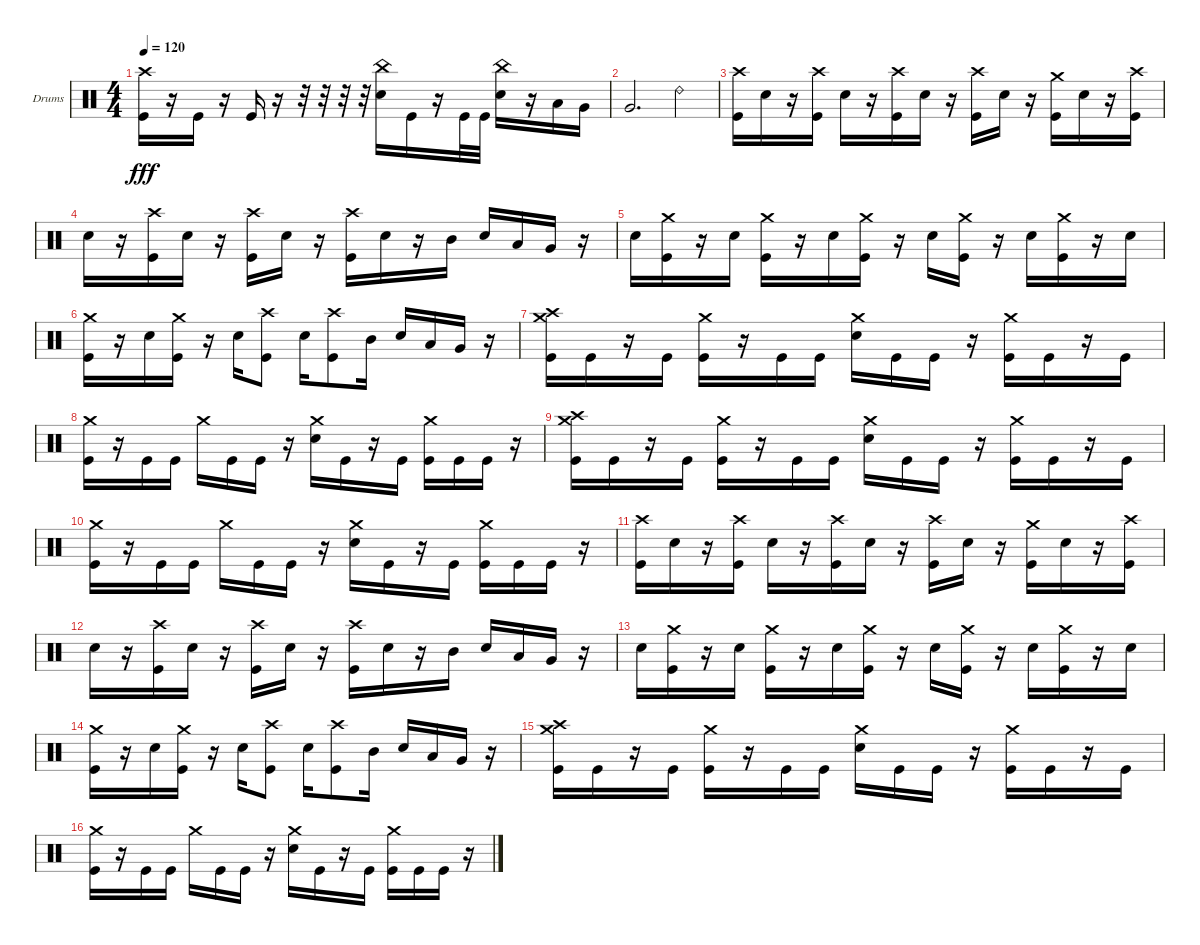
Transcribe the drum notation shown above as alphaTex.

\bracketExtendMode groupsimilarinstruments
\firstSystemTrackNameOrientation horizontal
\otherSystemsTrackNameOrientation horizontal
\track ("Drumkit" "Drums") {instrument percussion}
\staff {score}
\articulation defaults
\ts (4 4)
\tempo 120
\clef neutral
\ks c
("Kick (hit)" "Crash high (hit)").16{dy fff} r.16 "Kick (hit)".16 r.16 "Kick (hit)".16 r.16 r.32 r.32 r.32 r.32 ("Snare (hit) 2" "China (hit)").16 "Kick (hit)".16 r.16 "Kick (hit)".32 "Kick (hit)".32 ("China (hit)" "Snare (hit) 2").16 r.16 "Low Tom (hit)".16 "Very Low Tom (hit)".16 |
"Very Low Tom (hit)".2{d} "Ride (bell) 2".4 |
("Kick (hit)" "Crash high (hit)").16 "Snare (hit) 2".16 r.16 ("Kick (hit)" "Crash high (hit)").16 "Snare (hit) 2".16 r.16 ("Kick (hit)" "Crash high (hit)").16 "Snare (hit) 2".16 r.16 ("Kick (hit)" "Crash high (hit)").16 "Snare (hit) 2".16 r.16 ("Kick (hit)" "Crash medium (hit)").16 "Snare (hit) 2".16 r.16 ("Kick (hit)" "Crash high (hit)").16 |
"Snare (hit) 2".16 r.16 ("Kick (hit)" "Crash high (hit)").16 "Snare (hit) 2".16 r.16 ("Kick (hit)" "Crash high (hit)").16 "Snare (hit) 2".16 r.16 ("Kick (hit)" "Crash high (hit)").16 "Snare (hit) 2".16 r.16 "Mid Tom (hit)".16 "Snare (hit) 2".16 "Low Tom (hit)".16 "Very Low Tom (hit)".16 r.16 |
"Snare (hit) 2".16 ("Kick (hit)" "Crash medium (hit)").16 r.16 "Snare (hit) 2".16 ("Kick (hit)" "Crash medium (hit)").16 r.16 "Snare (hit) 2".16 ("Kick (hit)" "Crash medium (hit)").16 r.16 "Snare (hit) 2".16 ("Kick (hit)" "Crash medium (hit)").16 r.16 "Snare (hit) 2".16 ("Kick (hit)" "Crash medium (hit)").16 r.16 "Snare (hit) 2".16 |
("Kick (hit)" "Crash medium (hit)").16 r.16 "Snare (hit) 2".16 ("Kick (hit)" "Crash medium (hit)").16 r.16 "Snare (hit) 2".16 ("Kick (hit)" "Crash high (hit)").8 "Snare (hit) 2".16 ("Kick (hit)" "Crash high (hit)").8 "Mid Tom (hit)".16 "Snare (hit) 2".16 "Low Tom (hit)".16 "Very Low Tom (hit)".16 r.16 |
("Kick (hit)" "Crash medium (hit)" "Crash high (hit)").16 "Kick (hit)".16 r.16 "Kick (hit)".16 ("Kick (hit)" "Crash medium (hit)").16 r.16 "Kick (hit)".16 "Kick (hit)".16 ("Crash medium (hit)" "Snare (hit) 2").16 "Kick (hit)".16 "Kick (hit)".16 r.16 ("Kick (hit)" "Crash medium (hit)").16 "Kick (hit)".16 r.16 "Kick (hit)".16 |
("Kick (hit)" "Crash medium (hit)").16 r.16 "Kick (hit)".16 "Kick (hit)".16 "Crash medium (hit)".16 "Kick (hit)".16 "Kick (hit)".16 r.16 ("Crash medium (hit)" "Snare (hit) 2").16 "Kick (hit)".16 r.16 "Kick (hit)".16 ("Kick (hit)" "Crash medium (hit)").16 "Kick (hit)".16 "Kick (hit)".16 r.16 |
("Kick (hit)" "Crash medium (hit)" "Crash high (hit)").16 "Kick (hit)".16 r.16 "Kick (hit)".16 ("Kick (hit)" "Crash medium (hit)").16 r.16 "Kick (hit)".16 "Kick (hit)".16 ("Crash medium (hit)" "Snare (hit) 2").16 "Kick (hit)".16 "Kick (hit)".16 r.16 ("Kick (hit)" "Crash medium (hit)").16 "Kick (hit)".16 r.16 "Kick (hit)".16 |
("Kick (hit)" "Crash medium (hit)").16 r.16 "Kick (hit)".16 "Kick (hit)".16 "Crash medium (hit)".16 "Kick (hit)".16 "Kick (hit)".16 r.16 ("Crash medium (hit)" "Snare (hit) 2").16 "Kick (hit)".16 r.16 "Kick (hit)".16 ("Kick (hit)" "Crash medium (hit)").16 "Kick (hit)".16 "Kick (hit)".16 r.16 |
("Kick (hit)" "Crash high (hit)").16 "Snare (hit) 2".16 r.16 ("Kick (hit)" "Crash high (hit)").16 "Snare (hit) 2".16 r.16 ("Kick (hit)" "Crash high (hit)").16 "Snare (hit) 2".16 r.16 ("Kick (hit)" "Crash high (hit)").16 "Snare (hit) 2".16 r.16 ("Kick (hit)" "Crash medium (hit)").16 "Snare (hit) 2".16 r.16 ("Kick (hit)" "Crash high (hit)").16 |
"Snare (hit) 2".16 r.16 ("Kick (hit)" "Crash high (hit)").16 "Snare (hit) 2".16 r.16 ("Kick (hit)" "Crash high (hit)").16 "Snare (hit) 2".16 r.16 ("Kick (hit)" "Crash high (hit)").16 "Snare (hit) 2".16 r.16 "Mid Tom (hit)".16 "Snare (hit) 2".16 "Low Tom (hit)".16 "Very Low Tom (hit)".16 r.16 |
"Snare (hit) 2".16 ("Kick (hit)" "Crash medium (hit)").16 r.16 "Snare (hit) 2".16 ("Kick (hit)" "Crash medium (hit)").16 r.16 "Snare (hit) 2".16 ("Kick (hit)" "Crash medium (hit)").16 r.16 "Snare (hit) 2".16 ("Kick (hit)" "Crash medium (hit)").16 r.16 "Snare (hit) 2".16 ("Kick (hit)" "Crash medium (hit)").16 r.16 "Snare (hit) 2".16 |
("Kick (hit)" "Crash medium (hit)").16 r.16 "Snare (hit) 2".16 ("Kick (hit)" "Crash medium (hit)").16 r.16 "Snare (hit) 2".16 ("Kick (hit)" "Crash high (hit)").8 "Snare (hit) 2".16 ("Kick (hit)" "Crash high (hit)").8 "Mid Tom (hit)".16 "Snare (hit) 2".16 "Low Tom (hit)".16 "Very Low Tom (hit)".16 r.16 |
("Kick (hit)" "Crash medium (hit)" "Crash high (hit)").16 "Kick (hit)".16 r.16 "Kick (hit)".16 ("Kick (hit)" "Crash medium (hit)").16 r.16 "Kick (hit)".16 "Kick (hit)".16 ("Crash medium (hit)" "Snare (hit) 2").16 "Kick (hit)".16 "Kick (hit)".16 r.16 ("Kick (hit)" "Crash medium (hit)").16 "Kick (hit)".16 r.16 "Kick (hit)".16 |
("Kick (hit)" "Crash medium (hit)").16 r.16 "Kick (hit)".16 "Kick (hit)".16 "Crash medium (hit)".16 "Kick (hit)".16 "Kick (hit)".16 r.16 ("Crash medium (hit)" "Snare (hit) 2").16 "Kick (hit)".16 r.16 "Kick (hit)".16 ("Kick (hit)" "Crash medium (hit)").16 "Kick (hit)".16 "Kick (hit)".16 r.16
